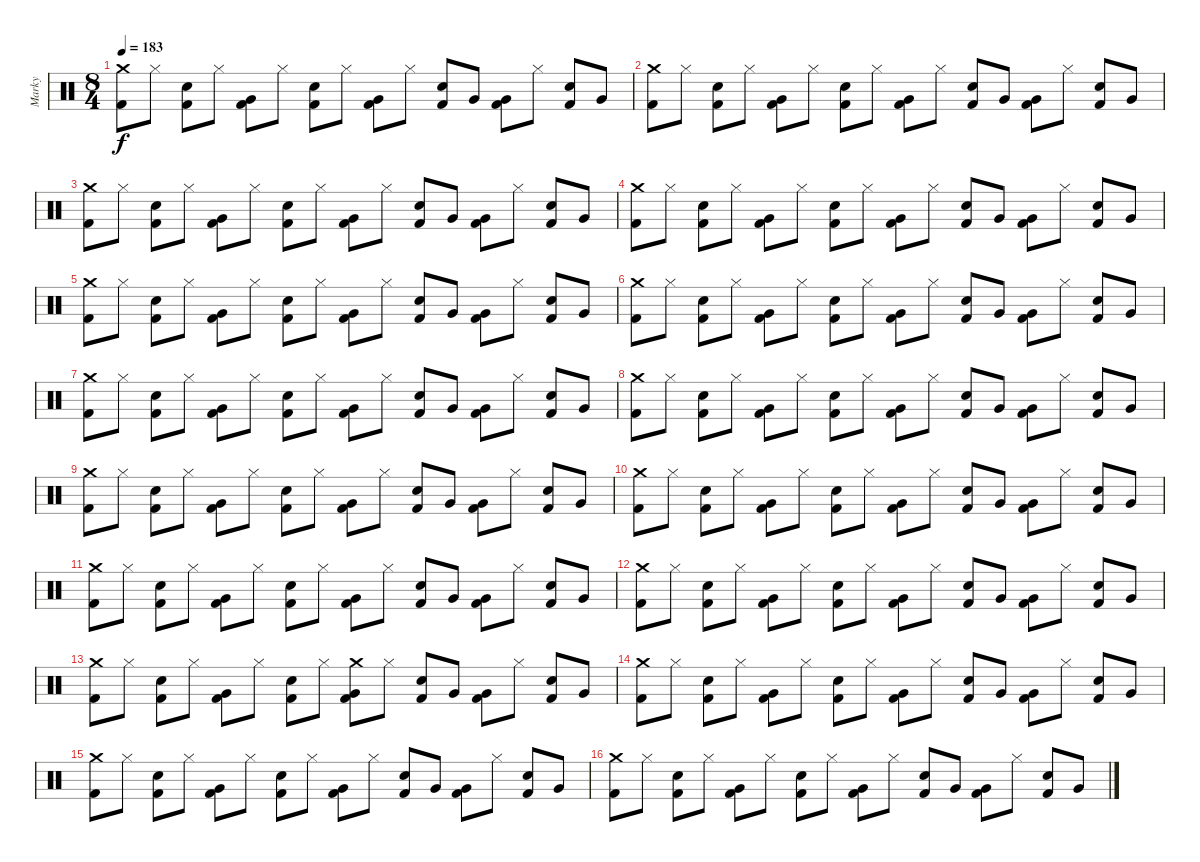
\track ("Marky" "Marky") {instrument percussion}
\staff {score}
\articulation defaults
\ts (8 4)
\tempo 183
\clef neutral
\ks c
("Kick (hit) 2" "Crash medium (hit)").8{dy f} "Hi-Hat (closed)".8 ("Kick (hit) 2" "Snare (hit) 2").8 "Hi-Hat (closed)".8 ("Kick (hit) 2" "Very Low Tom (hit)").8 "Hi-Hat (closed)".8 ("Kick (hit) 2" "Snare (hit) 2").8 "Hi-Hat (closed)".8 ("Kick (hit) 2" "Very Low Tom (hit)").8 "Hi-Hat (closed)".8 ("Kick (hit) 2" "Snare (hit) 2").8 "Very Low Tom (hit)".8 ("Kick (hit) 2" "Very Low Tom (hit)").8 "Hi-Hat (closed)".8 ("Kick (hit) 2" "Snare (hit) 2").8 "Very Low Tom (hit)".8 |
("Kick (hit) 2" "Crash medium (hit)").8 "Hi-Hat (closed)".8 ("Kick (hit) 2" "Snare (hit) 2").8 "Hi-Hat (closed)".8 ("Kick (hit) 2" "Very Low Tom (hit)").8 "Hi-Hat (closed)".8 ("Kick (hit) 2" "Snare (hit) 2").8 "Hi-Hat (closed)".8 ("Kick (hit) 2" "Very Low Tom (hit)").8 "Hi-Hat (closed)".8 ("Kick (hit) 2" "Snare (hit) 2").8 "Very Low Tom (hit)".8 ("Kick (hit) 2" "Very Low Tom (hit)").8 "Hi-Hat (closed)".8 ("Kick (hit) 2" "Snare (hit) 2").8 "Very Low Tom (hit)".8 |
("Kick (hit) 2" "Crash medium (hit)").8 "Hi-Hat (closed)".8 ("Kick (hit) 2" "Snare (hit) 2").8 "Hi-Hat (closed)".8 ("Kick (hit) 2" "Very Low Tom (hit)").8 "Hi-Hat (closed)".8 ("Kick (hit) 2" "Snare (hit) 2").8 "Hi-Hat (closed)".8 ("Kick (hit) 2" "Very Low Tom (hit)").8 "Hi-Hat (closed)".8 ("Kick (hit) 2" "Snare (hit) 2").8 "Very Low Tom (hit)".8 ("Kick (hit) 2" "Very Low Tom (hit)").8 "Hi-Hat (closed)".8 ("Kick (hit) 2" "Snare (hit) 2").8 "Very Low Tom (hit)".8 |
("Kick (hit) 2" "Crash medium (hit)").8 "Hi-Hat (closed)".8 ("Kick (hit) 2" "Snare (hit) 2").8 "Hi-Hat (closed)".8 ("Kick (hit) 2" "Very Low Tom (hit)").8 "Hi-Hat (closed)".8 ("Kick (hit) 2" "Snare (hit) 2").8 "Hi-Hat (closed)".8 ("Kick (hit) 2" "Very Low Tom (hit)").8 "Hi-Hat (closed)".8 ("Kick (hit) 2" "Snare (hit) 2").8 "Very Low Tom (hit)".8 ("Kick (hit) 2" "Very Low Tom (hit)").8 "Hi-Hat (closed)".8 ("Kick (hit) 2" "Snare (hit) 2").8 "Very Low Tom (hit)".8 |
("Kick (hit) 2" "Crash medium (hit)").8 "Hi-Hat (closed)".8 ("Kick (hit) 2" "Snare (hit) 2").8 "Hi-Hat (closed)".8 ("Kick (hit) 2" "Very Low Tom (hit)").8 "Hi-Hat (closed)".8 ("Kick (hit) 2" "Snare (hit) 2").8 "Hi-Hat (closed)".8 ("Kick (hit) 2" "Very Low Tom (hit)").8 "Hi-Hat (closed)".8 ("Kick (hit) 2" "Snare (hit) 2").8 "Very Low Tom (hit)".8 ("Kick (hit) 2" "Very Low Tom (hit)").8 "Hi-Hat (closed)".8 ("Kick (hit) 2" "Snare (hit) 2").8 "Very Low Tom (hit)".8 |
("Kick (hit) 2" "Crash medium (hit)").8 "Hi-Hat (closed)".8 ("Kick (hit) 2" "Snare (hit) 2").8 "Hi-Hat (closed)".8 ("Kick (hit) 2" "Very Low Tom (hit)").8 "Hi-Hat (closed)".8 ("Kick (hit) 2" "Snare (hit) 2").8 "Hi-Hat (closed)".8 ("Kick (hit) 2" "Very Low Tom (hit)").8 "Hi-Hat (closed)".8 ("Kick (hit) 2" "Snare (hit) 2").8 "Very Low Tom (hit)".8 ("Kick (hit) 2" "Very Low Tom (hit)").8 "Hi-Hat (closed)".8 ("Kick (hit) 2" "Snare (hit) 2").8 "Very Low Tom (hit)".8 |
("Kick (hit) 2" "Crash medium (hit)").8 "Hi-Hat (closed)".8 ("Kick (hit) 2" "Snare (hit) 2").8 "Hi-Hat (closed)".8 ("Kick (hit) 2" "Very Low Tom (hit)").8 "Hi-Hat (closed)".8 ("Kick (hit) 2" "Snare (hit) 2").8 "Hi-Hat (closed)".8 ("Kick (hit) 2" "Very Low Tom (hit)").8 "Hi-Hat (closed)".8 ("Kick (hit) 2" "Snare (hit) 2").8 "Very Low Tom (hit)".8 ("Kick (hit) 2" "Very Low Tom (hit)").8 "Hi-Hat (closed)".8 ("Kick (hit) 2" "Snare (hit) 2").8 "Very Low Tom (hit)".8 |
("Kick (hit) 2" "Crash medium (hit)").8 "Hi-Hat (closed)".8 ("Kick (hit) 2" "Snare (hit) 2").8 "Hi-Hat (closed)".8 ("Kick (hit) 2" "Very Low Tom (hit)").8 "Hi-Hat (closed)".8 ("Kick (hit) 2" "Snare (hit) 2").8 "Hi-Hat (closed)".8 ("Kick (hit) 2" "Very Low Tom (hit)").8 "Hi-Hat (closed)".8 ("Kick (hit) 2" "Snare (hit) 2").8 "Very Low Tom (hit)".8 ("Kick (hit) 2" "Very Low Tom (hit)").8 "Hi-Hat (closed)".8 ("Kick (hit) 2" "Snare (hit) 2").8 "Very Low Tom (hit)".8 |
("Kick (hit) 2" "Crash medium (hit)").8 "Hi-Hat (closed)".8 ("Kick (hit) 2" "Snare (hit) 2").8 "Hi-Hat (closed)".8 ("Kick (hit) 2" "Very Low Tom (hit)").8 "Hi-Hat (closed)".8 ("Kick (hit) 2" "Snare (hit) 2").8 "Hi-Hat (closed)".8 ("Kick (hit) 2" "Very Low Tom (hit)").8 "Hi-Hat (closed)".8 ("Kick (hit) 2" "Snare (hit) 2").8 "Very Low Tom (hit)".8 ("Kick (hit) 2" "Very Low Tom (hit)").8 "Hi-Hat (closed)".8 ("Kick (hit) 2" "Snare (hit) 2").8 "Very Low Tom (hit)".8 |
("Kick (hit) 2" "Crash medium (hit)").8 "Hi-Hat (closed)".8 ("Kick (hit) 2" "Snare (hit) 2").8 "Hi-Hat (closed)".8 ("Kick (hit) 2" "Very Low Tom (hit)").8 "Hi-Hat (closed)".8 ("Kick (hit) 2" "Snare (hit) 2").8 "Hi-Hat (closed)".8 ("Kick (hit) 2" "Very Low Tom (hit)").8 "Hi-Hat (closed)".8 ("Kick (hit) 2" "Snare (hit) 2").8 "Very Low Tom (hit)".8 ("Kick (hit) 2" "Very Low Tom (hit)").8 "Hi-Hat (closed)".8 ("Kick (hit) 2" "Snare (hit) 2").8 "Very Low Tom (hit)".8 |
("Kick (hit) 2" "Crash medium (hit)").8 "Hi-Hat (closed)".8 ("Kick (hit) 2" "Snare (hit) 2").8 "Hi-Hat (closed)".8 ("Kick (hit) 2" "Very Low Tom (hit)").8 "Hi-Hat (closed)".8 ("Kick (hit) 2" "Snare (hit) 2").8 "Hi-Hat (closed)".8 ("Kick (hit) 2" "Very Low Tom (hit)").8 "Hi-Hat (closed)".8 ("Kick (hit) 2" "Snare (hit) 2").8 "Very Low Tom (hit)".8 ("Kick (hit) 2" "Very Low Tom (hit)").8 "Hi-Hat (closed)".8 ("Kick (hit) 2" "Snare (hit) 2").8 "Very Low Tom (hit)".8 |
("Kick (hit) 2" "Crash medium (hit)").8 "Hi-Hat (closed)".8 ("Kick (hit) 2" "Snare (hit) 2").8 "Hi-Hat (closed)".8 ("Kick (hit) 2" "Very Low Tom (hit)").8 "Hi-Hat (closed)".8 ("Kick (hit) 2" "Snare (hit) 2").8 "Hi-Hat (closed)".8 ("Kick (hit) 2" "Very Low Tom (hit)").8 "Hi-Hat (closed)".8 ("Kick (hit) 2" "Snare (hit) 2").8 "Very Low Tom (hit)".8 ("Kick (hit) 2" "Very Low Tom (hit)").8 "Hi-Hat (closed)".8 ("Kick (hit) 2" "Snare (hit) 2").8 "Very Low Tom (hit)".8 |
("Kick (hit) 2" "Crash medium (hit)").8 "Hi-Hat (closed)".8 ("Kick (hit) 2" "Snare (hit) 2").8 "Hi-Hat (closed)".8 ("Kick (hit) 2" "Very Low Tom (hit)").8 "Hi-Hat (closed)".8 ("Kick (hit) 2" "Snare (hit) 2").8 "Hi-Hat (closed)".8 ("Kick (hit) 2" "Very Low Tom (hit)" "Crash medium (hit)").8 "Hi-Hat (closed)".8 ("Kick (hit) 2" "Snare (hit) 2").8 "Very Low Tom (hit)".8 ("Kick (hit) 2" "Very Low Tom (hit)").8 "Hi-Hat (closed)".8 ("Kick (hit) 2" "Snare (hit) 2").8 "Very Low Tom (hit)".8 |
("Kick (hit) 2" "Crash medium (hit)").8 "Hi-Hat (closed)".8 ("Kick (hit) 2" "Snare (hit) 2").8 "Hi-Hat (closed)".8 ("Kick (hit) 2" "Very Low Tom (hit)").8 "Hi-Hat (closed)".8 ("Kick (hit) 2" "Snare (hit) 2").8 "Hi-Hat (closed)".8 ("Kick (hit) 2" "Very Low Tom (hit)").8 "Hi-Hat (closed)".8 ("Kick (hit) 2" "Snare (hit) 2").8 "Very Low Tom (hit)".8 ("Kick (hit) 2" "Very Low Tom (hit)").8 "Hi-Hat (closed)".8 ("Kick (hit) 2" "Snare (hit) 2").8 "Very Low Tom (hit)".8 |
("Kick (hit) 2" "Crash medium (hit)").8 "Hi-Hat (closed)".8 ("Kick (hit) 2" "Snare (hit) 2").8 "Hi-Hat (closed)".8 ("Kick (hit) 2" "Very Low Tom (hit)").8 "Hi-Hat (closed)".8 ("Kick (hit) 2" "Snare (hit) 2").8 "Hi-Hat (closed)".8 ("Kick (hit) 2" "Very Low Tom (hit)").8 "Hi-Hat (closed)".8 ("Kick (hit) 2" "Snare (hit) 2").8 "Very Low Tom (hit)".8 ("Kick (hit) 2" "Very Low Tom (hit)").8 "Hi-Hat (closed)".8 ("Kick (hit) 2" "Snare (hit) 2").8 "Very Low Tom (hit)".8 |
("Kick (hit) 2" "Crash medium (hit)").8 "Hi-Hat (closed)".8 ("Kick (hit) 2" "Snare (hit) 2").8 "Hi-Hat (closed)".8 ("Kick (hit) 2" "Very Low Tom (hit)").8 "Hi-Hat (closed)".8 ("Kick (hit) 2" "Snare (hit) 2").8 "Hi-Hat (closed)".8 ("Kick (hit) 2" "Very Low Tom (hit)").8 "Hi-Hat (closed)".8 ("Kick (hit) 2" "Snare (hit) 2").8 "Very Low Tom (hit)".8 ("Kick (hit) 2" "Very Low Tom (hit)").8 "Hi-Hat (closed)".8 ("Kick (hit) 2" "Snare (hit) 2").8 "Very Low Tom (hit)".8
